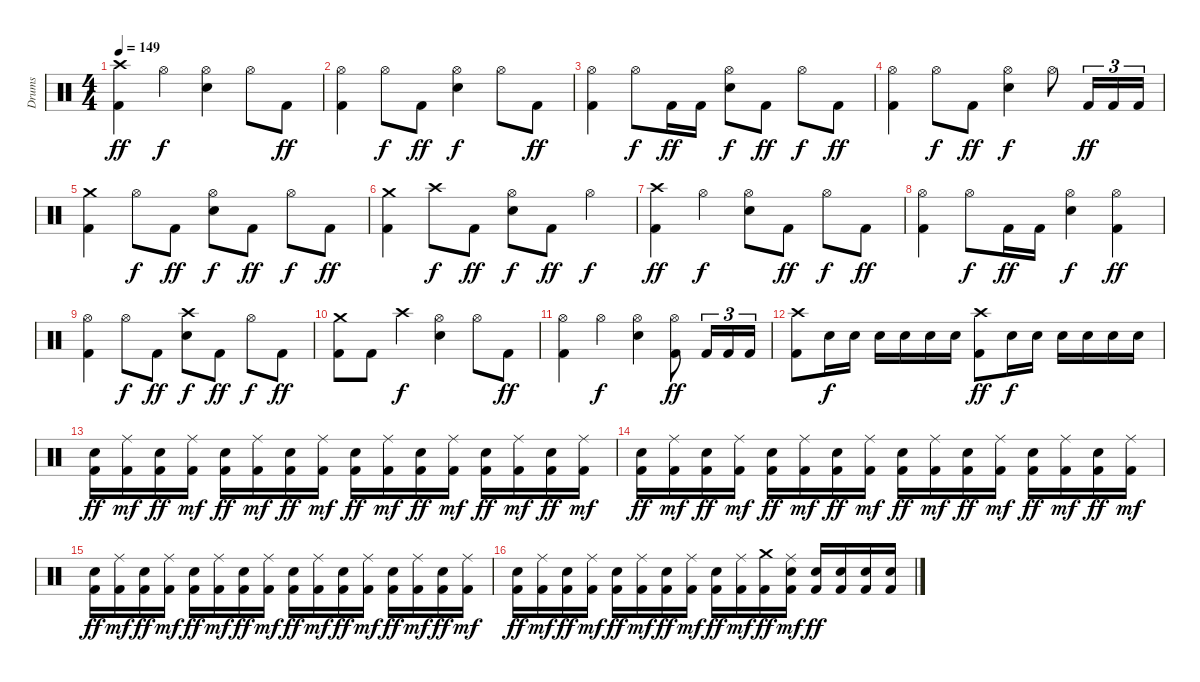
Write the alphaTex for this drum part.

\track ("Drums" "Drums") {instrument percussion}
\staff {score}
\articulation defaults
\ts (4 4)
\tempo 149
\clef neutral
\ks c
("Crash high (hit)" "Kick (hit) 2").4{dy ff} "Hi-Hat (open)".4{dy f} ("Snare (hit) 2" "Hi-Hat (open)").4 "Hi-Hat (open)".8 "Kick (hit) 2".8{dy ff} |
("Kick (hit) 2" "Hi-Hat (open)").4 "Hi-Hat (open)".8{dy f} "Kick (hit) 2".8{dy ff} ("Snare (hit) 2" "Hi-Hat (open)").4{dy f} "Hi-Hat (open)".8 "Kick (hit) 2".8{dy ff} |
("Kick (hit) 2" "Hi-Hat (open)").4 "Hi-Hat (open)".8{dy f} "Kick (hit) 2".16{dy ff} "Kick (hit) 2".16 ("Snare (hit) 2" "Hi-Hat (open)").8{dy f} "Kick (hit) 2".8{dy ff} "Hi-Hat (open)".8{dy f} "Kick (hit) 2".8{dy ff} |
("Kick (hit) 2" "Hi-Hat (open)").4 "Hi-Hat (open)".8{dy f} "Kick (hit) 2".8{dy ff} ("Snare (hit) 2" "Hi-Hat (open)").4{dy f} "Hi-Hat (open)".8 "Kick (hit) 2".16{tu (3 2) dy ff} "Kick (hit) 2".16{tu (3 2)} "Kick (hit) 2".16{tu (3 2)} |
("Crash medium (hit)" "Kick (hit) 2").4 "Hi-Hat (open)".8{dy f} "Kick (hit) 2".8{dy ff} ("Snare (hit) 2" "Hi-Hat (open)").8{dy f} "Kick (hit) 2".8{dy ff} "Hi-Hat (open)".8{dy f} "Kick (hit) 2".8{dy ff} |
("Crash medium (hit)" "Kick (hit) 2").4 "Crash high (hit)".8{dy f} "Kick (hit) 2".8{dy ff} ("Snare (hit) 2" "Hi-Hat (open)").8{dy f} "Kick (hit) 2".8{dy ff} "Hi-Hat (open)".4{dy f} |
("Crash high (hit)" "Kick (hit) 2").4{dy ff} "Hi-Hat (open)".4{dy f} ("Snare (hit) 2" "Hi-Hat (open)").8 "Kick (hit) 2".8{dy ff} "Hi-Hat (open)".8{dy f} "Kick (hit) 2".8{dy ff} |
("Kick (hit) 2" "Hi-Hat (open)").4 "Hi-Hat (open)".8{dy f} "Kick (hit) 2".16{dy ff} "Kick (hit) 2".16 ("Snare (hit) 2" "Hi-Hat (open)").4{dy f} ("Kick (hit) 2" "Hi-Hat (open)").4{dy ff} |
("Kick (hit) 2" "Hi-Hat (open)").4 "Hi-Hat (open)".8{dy f} "Kick (hit) 2".8{dy ff} ("Crash high (hit)" "Snare (hit) 2").8{dy f} "Kick (hit) 2".8{dy ff} "Hi-Hat (open)".8{dy f} "Kick (hit) 2".8{dy ff} |
("Crash medium (hit)" "Kick (hit) 2").8 "Kick (hit) 2".8 "Crash high (hit)".4{dy f} ("Snare (hit) 2" "Hi-Hat (open)").4 "Hi-Hat (open)".8 "Kick (hit) 2".8{dy ff} |
("Kick (hit) 2" "Hi-Hat (open)").4 "Hi-Hat (open)".4{dy f} ("Snare (hit) 2" "Hi-Hat (open)").4 ("Kick (hit) 2" "Hi-Hat (open)").8{dy ff} "Kick (hit) 2".16{tu (3 2)} "Kick (hit) 2".16{tu (3 2)} "Kick (hit) 2".16{tu (3 2)} |
("Crash high (hit)" "Kick (hit) 2").8 "Snare (hit) 2".16{dy f} "Snare (hit) 2".16 "Snare (hit) 2".16 "Snare (hit) 2".16 "Snare (hit) 2".16 "Snare (hit) 2".16 ("Crash high (hit)" "Kick (hit) 2").8{dy ff} "Snare (hit) 2".16{dy f} "Snare (hit) 2".16 "Snare (hit) 2".16 "Snare (hit) 2".16 "Snare (hit) 2".16 "Snare (hit) 2".16 |
("Snare (hit) 2" "Kick (hit) 2").16{dy ff} ("Kick (hit) 2" "Ride (middle)").16{dy mf} ("Snare (hit) 2" "Kick (hit) 2").16{dy ff} ("Kick (hit) 2" "Ride (middle)").16{dy mf} ("Snare (hit) 2" "Kick (hit) 2").16{dy ff} ("Kick (hit) 2" "Ride (middle)").16{dy mf} ("Snare (hit) 2" "Kick (hit) 2").16{dy ff} ("Kick (hit) 2" "Ride (middle)").16{dy mf} ("Snare (hit) 2" "Kick (hit) 2").16{dy ff} ("Kick (hit) 2" "Ride (middle)").16{dy mf} ("Snare (hit) 2" "Kick (hit) 2").16{dy ff} ("Kick (hit) 2" "Ride (middle)").16{dy mf} ("Snare (hit) 2" "Kick (hit) 2").16{dy ff} ("Kick (hit) 2" "Ride (middle)").16{dy mf} ("Snare (hit) 2" "Kick (hit) 2").16{dy ff} ("Kick (hit) 2" "Ride (middle)").16{dy mf} |
("Snare (hit) 2" "Kick (hit) 2").16{dy ff} ("Kick (hit) 2" "Ride (middle)").16{dy mf} ("Snare (hit) 2" "Kick (hit) 2").16{dy ff} ("Kick (hit) 2" "Ride (middle)").16{dy mf} ("Snare (hit) 2" "Kick (hit) 2").16{dy ff} ("Kick (hit) 2" "Ride (middle)").16{dy mf} ("Snare (hit) 2" "Kick (hit) 2").16{dy ff} ("Kick (hit) 2" "Ride (middle)").16{dy mf} ("Snare (hit) 2" "Kick (hit) 2").16{dy ff} ("Kick (hit) 2" "Ride (middle)").16{dy mf} ("Snare (hit) 2" "Kick (hit) 2").16{dy ff} ("Kick (hit) 2" "Ride (middle)").16{dy mf} ("Snare (hit) 2" "Kick (hit) 2").16{dy ff} ("Kick (hit) 2" "Ride (middle)").16{dy mf} ("Snare (hit) 2" "Kick (hit) 2").16{dy ff} ("Kick (hit) 2" "Ride (middle)").16{dy mf} |
("Snare (hit) 2" "Kick (hit) 2").16{dy ff} ("Kick (hit) 2" "Ride (middle)").16{dy mf} ("Snare (hit) 2" "Kick (hit) 2").16{dy ff} ("Kick (hit) 2" "Ride (middle)").16{dy mf} ("Snare (hit) 2" "Kick (hit) 2").16{dy ff} ("Kick (hit) 2" "Ride (middle)").16{dy mf} ("Snare (hit) 2" "Kick (hit) 2").16{dy ff} ("Kick (hit) 2" "Ride (middle)").16{dy mf} ("Snare (hit) 2" "Kick (hit) 2").16{dy ff} ("Kick (hit) 2" "Ride (middle)").16{dy mf} ("Snare (hit) 2" "Kick (hit) 2").16{dy ff} ("Kick (hit) 2" "Ride (middle)").16{dy mf} ("Snare (hit) 2" "Kick (hit) 2").16{dy ff} ("Kick (hit) 2" "Ride (middle)").16{dy mf} ("Snare (hit) 2" "Kick (hit) 2").16{dy ff} ("Kick (hit) 2" "Ride (middle)").16{dy mf} |
("Snare (hit) 2" "Kick (hit) 2").16{dy ff} ("Kick (hit) 2" "Ride (middle)").16{dy mf} ("Snare (hit) 2" "Kick (hit) 2").16{dy ff} ("Kick (hit) 2" "Ride (middle)").16{dy mf} ("Snare (hit) 2" "Kick (hit) 2").16{dy ff} ("Kick (hit) 2" "Ride (middle)").16{dy mf} ("Snare (hit) 2" "Kick (hit) 2").16{dy ff} ("Kick (hit) 2" "Ride (middle)").16{dy mf} ("Snare (hit) 2" "Kick (hit) 2").16{dy ff} ("Kick (hit) 2" "Ride (middle)").16{dy mf} ("Crash medium (hit)" "Kick (hit) 2").16{dy ff} ("Snare (hit) 2" "Kick (hit) 2" "Ride (middle)").16{dy mf} ("Snare (hit) 2" "Kick (hit) 2").16{dy ff} ("Snare (hit) 2" "Kick (hit) 2").16 ("Snare (hit) 2" "Kick (hit) 2").16 ("Snare (hit) 2" "Kick (hit) 2").16
